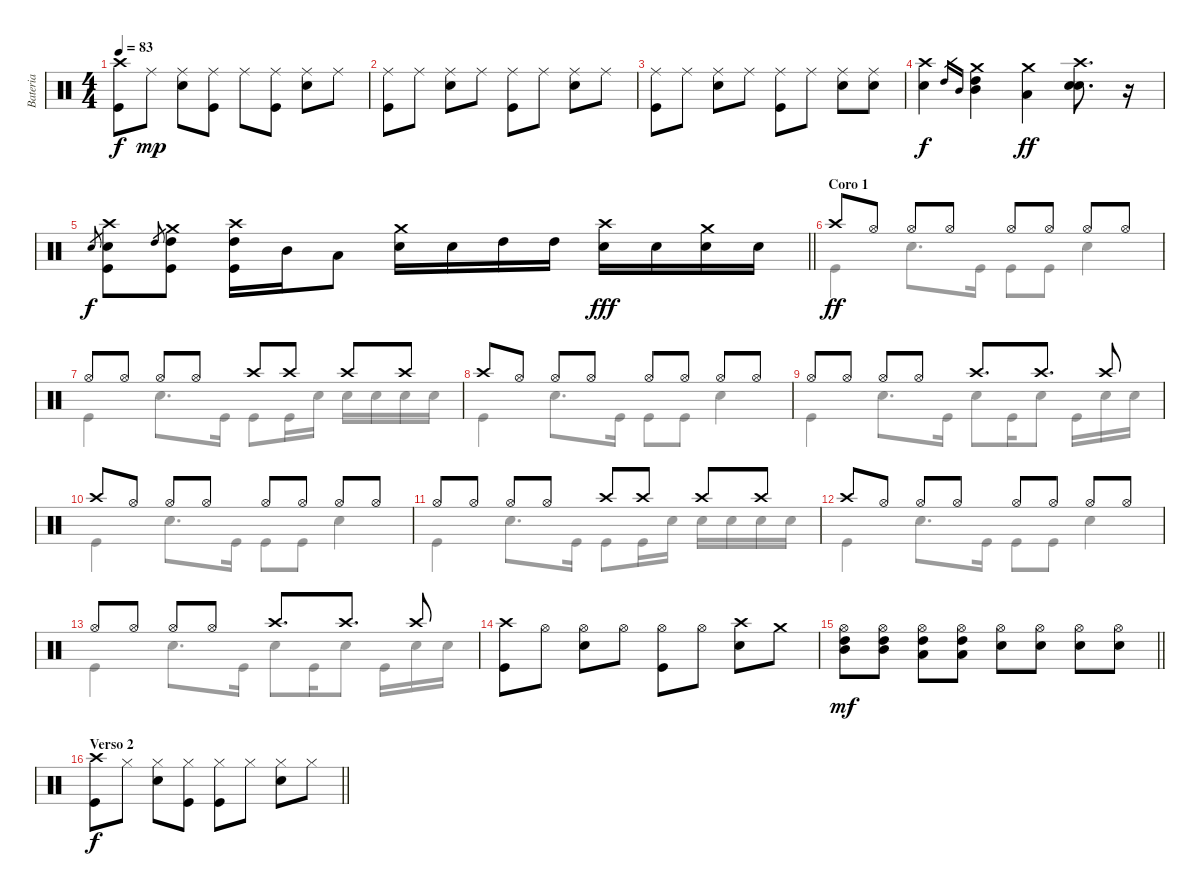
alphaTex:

\track ("Bateria" "Bateria") {instrument percussion}
\staff {score}
\articulation defaults
\voice
\ts (4 4)
\tempo 83
\clef neutral
\ks c
("Crash high (hit)" "Kick (hit)").8{dy f} "Ride (middle)".8{dy mp} ("Ride (middle)" "Snare (hit) 2").8 ("Ride (middle)" "Kick (hit)").8 "Ride (middle)".8 ("Ride (middle)" "Kick (hit)").8 ("Ride (middle)" "Snare (hit) 2").8 "Ride (middle)".8 |
("Ride (middle)" "Kick (hit)").8 "Ride (middle)".8 ("Ride (middle)" "Snare (hit) 2").8 "Ride (middle)".8 ("Ride (middle)" "Kick (hit)").8 "Ride (middle)".8 ("Ride (middle)" "Snare (hit) 2").8 "Ride (middle)".8 |
("Ride (middle)" "Kick (hit)").8 "Ride (middle)".8 ("Ride (middle)" "Snare (hit) 2").8 "Ride (middle)".8 ("Ride (middle)" "Kick (hit)").8 "Ride (middle)".8 ("Ride (middle)" "Snare (hit) 2").8 ("Ride (middle)" "Snare (hit) 2").8 |
("Crash high (hit)" "Snare (hit) 2").4{dy f} "High Tom (hit)".16{gr} "Mid Tom (hit)".16{gr} ("Crash medium (hit)" "High Tom (hit)" "Mid Tom (hit)").4 ("Crash medium (hit)" "Low Tom (hit)").4{dy ff} ("Crash high (hit)" "Snare (hit) 2" "Snare (hit) 2").8{d} r.16 |
\barLineRight lightlight "Snare (hit) 2".8{gr dy f}
("Crash high (hit)" "Snare (hit) 2" "Kick (hit)").8 "High Tom (hit)".8{gr} ("Crash medium (hit)" "High Tom (hit)" "Kick (hit)").8 ("Crash high (hit)" "High Tom (hit)" "Kick (hit)").16 "Mid Tom (hit)".16 "Low Tom (hit)".8 ("Crash medium (hit)" "Snare (hit) 2").16 "Snare (hit) 2".16 "High Tom (hit)".16 "High Tom (hit)".16 ("Crash high (hit)" "Snare (hit) 2").16{dy fff} "Snare (hit) 2".16 ("Crash medium (hit)" "Snare (hit) 2").16 "Snare (hit) 2".16 |
\section ("" "Coro 1")
"Crash high (hit)".8{dy ff} "Hi-Hat (open)".8 "Hi-Hat (open)".8 "Hi-Hat (open)".8 "Hi-Hat (open)".8 "Hi-Hat (open)".8 "Hi-Hat (open)".8 "Hi-Hat (open)".8 |
"Hi-Hat (open)".8 "Hi-Hat (open)".8 "Hi-Hat (open)".8 "Hi-Hat (open)".8 "Crash high (hit)".8 "Crash high (hit)".8 "Crash high (hit)".8 "Crash high (hit)".8 |
"Crash high (hit)".8 "Hi-Hat (open)".8 "Hi-Hat (open)".8 "Hi-Hat (open)".8 "Hi-Hat (open)".8 "Hi-Hat (open)".8 "Hi-Hat (open)".8 "Hi-Hat (open)".8 |
"Hi-Hat (open)".8 "Hi-Hat (open)".8 "Hi-Hat (open)".8 "Hi-Hat (open)".8 "Crash high (hit)".8{d} "Crash high (hit)".8{d} "Crash high (hit)".8 |
"Crash high (hit)".8 "Hi-Hat (open)".8 "Hi-Hat (open)".8 "Hi-Hat (open)".8 "Hi-Hat (open)".8 "Hi-Hat (open)".8 "Hi-Hat (open)".8 "Hi-Hat (open)".8 |
"Hi-Hat (open)".8 "Hi-Hat (open)".8 "Hi-Hat (open)".8 "Hi-Hat (open)".8 "Crash high (hit)".8 "Crash high (hit)".8 "Crash high (hit)".8 "Crash high (hit)".8 |
"Crash high (hit)".8 "Hi-Hat (open)".8 "Hi-Hat (open)".8 "Hi-Hat (open)".8 "Hi-Hat (open)".8 "Hi-Hat (open)".8 "Hi-Hat (open)".8 "Hi-Hat (open)".8 |
"Hi-Hat (open)".8 "Hi-Hat (open)".8 "Hi-Hat (open)".8 "Hi-Hat (open)".8 "Crash high (hit)".8{d} "Crash high (hit)".8{d} "Crash high (hit)".8 |
("Crash high (hit)" "Kick (hit)").8 "Hi-Hat (open)".8 ("Hi-Hat (open)" "Snare (hit) 2").8 "Hi-Hat (open)".8 ("Hi-Hat (open)" "Kick (hit)").8 "Hi-Hat (open)".8 ("Crash high (hit)" "Snare (hit) 2").8 "Crash medium (hit)".8 |
\barLineRight lightlight
("Hi-Hat (open)" "High Tom (hit)" "Mid Tom (hit)").8{dy mf} ("Hi-Hat (open)" "High Tom (hit)" "Mid Tom (hit)").8 ("Hi-Hat (open)" "High Tom (hit)" "Low Tom (hit)").8 ("Hi-Hat (open)" "High Tom (hit)" "Low Tom (hit)").8 ("Hi-Hat (open)" "Snare (hit) 2").8 ("Hi-Hat (open)" "Snare (hit) 2").8 ("Hi-Hat (open)" "Snare (hit) 2").8 ("Hi-Hat (open)" "Snare (hit) 2").8 |
\section ("" "Verso 2")
\barLineRight lightlight
("Crash high (hit)" "Kick (hit)").8{dy f} "Hi-Hat (closed)".8 ("Hi-Hat (closed)" "Snare (hit) 2").8 ("Hi-Hat (closed)" "Kick (hit)").8 ("Hi-Hat (closed)" "Kick (hit)").8 "Hi-Hat (closed)".8 ("Hi-Hat (closed)" "Snare (hit) 2").8 "Hi-Hat (closed)".8
\voice
\clef neutral
\ottava regular
\simile none
\ks c
|
|
|
|
\barLineRight lightlight
|
"Kick (hit)".4{dy ff} "Snare (hit) 2".8{d} "Kick (hit)".16 "Kick (hit)".8 "Kick (hit)".8 "Snare (hit) 2".4 |
"Kick (hit)".4 "Snare (hit) 2".8{d} "Kick (hit)".16 "Kick (hit)".8 "Kick (hit)".16 "Snare (hit) 2".16 "Snare (hit) 2".16 "Snare (hit) 2".16 "Snare (hit) 2".16 "Snare (hit) 2".16 |
"Kick (hit)".4 "Snare (hit) 2".8{d} "Kick (hit)".16 "Kick (hit)".8 "Kick (hit)".8 "Snare (hit) 2".4 |
"Kick (hit)".4 "Snare (hit) 2".8{d} "Kick (hit)".16 "Snare (hit) 2".8 "Kick (hit)".16 "Snare (hit) 2".8 "Kick (hit)".16 "Snare (hit) 2".16 "Snare (hit) 2".16 |
"Kick (hit)".4 "Snare (hit) 2".8{d} "Kick (hit)".16 "Kick (hit)".8 "Kick (hit)".8 "Snare (hit) 2".4 |
"Kick (hit)".4 "Snare (hit) 2".8{d} "Kick (hit)".16 "Kick (hit)".8 "Kick (hit)".16 "Snare (hit) 2".16 "Snare (hit) 2".16 "Snare (hit) 2".16 "Snare (hit) 2".16 "Snare (hit) 2".16 |
"Kick (hit)".4 "Snare (hit) 2".8{d} "Kick (hit)".16 "Kick (hit)".8 "Kick (hit)".8 "Snare (hit) 2".4 |
"Kick (hit)".4 "Snare (hit) 2".8{d} "Kick (hit)".16 "Snare (hit) 2".8 "Kick (hit)".16 "Snare (hit) 2".8 "Kick (hit)".16 "Snare (hit) 2".16 "Snare (hit) 2".16 |
|
\barLineRight lightlight
|
\barLineRight lightlight
